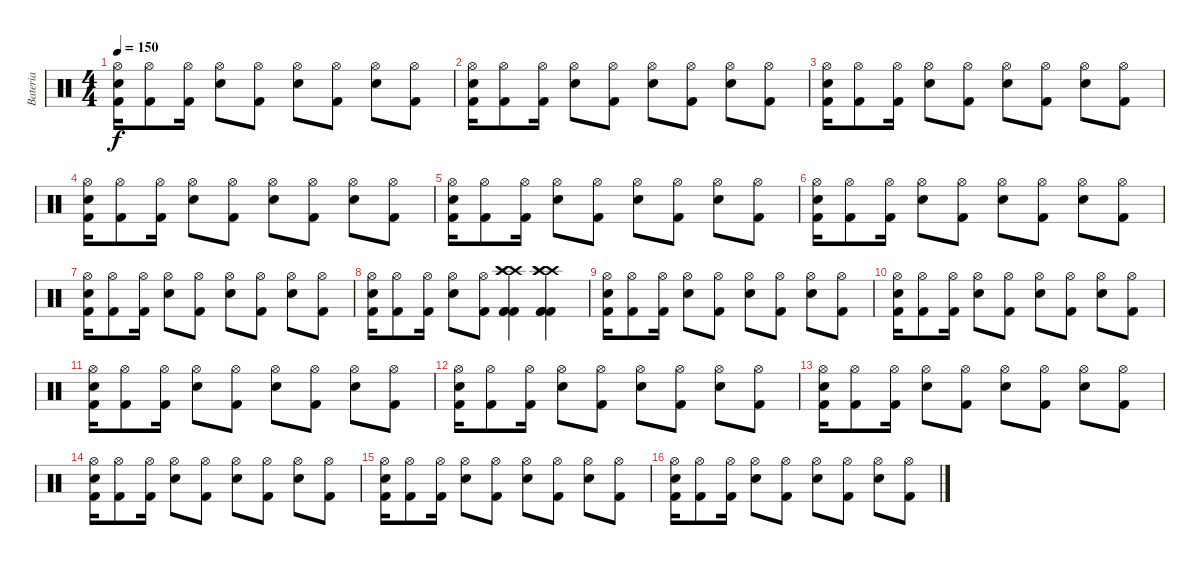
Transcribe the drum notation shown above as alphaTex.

\track ("Bateria" "Bateria") {instrument percussion}
\staff {score}
\articulation defaults
\ts (4 4)
\tempo 150
\clef neutral
\ks c
("Hi-Hat (open)" "Electric Snare (hit)" "Kick (hit) 2").16{dy f} ("Hi-Hat (open)" "Kick (hit) 2").8 ("Hi-Hat (open)" "Kick (hit) 2").16 ("Hi-Hat (open)" "Electric Snare (hit)").8 ("Hi-Hat (open)" "Kick (hit) 2").8 ("Hi-Hat (open)" "Electric Snare (hit)").8 ("Hi-Hat (open)" "Kick (hit) 2").8 ("Hi-Hat (open)" "Electric Snare (hit)").8 ("Hi-Hat (open)" "Kick (hit) 2").8 |
("Hi-Hat (open)" "Electric Snare (hit)" "Kick (hit) 2").16 ("Hi-Hat (open)" "Kick (hit) 2").8 ("Hi-Hat (open)" "Kick (hit) 2").16 ("Hi-Hat (open)" "Electric Snare (hit)").8 ("Hi-Hat (open)" "Kick (hit) 2").8 ("Hi-Hat (open)" "Electric Snare (hit)").8 ("Hi-Hat (open)" "Kick (hit) 2").8 ("Hi-Hat (open)" "Electric Snare (hit)").8 ("Hi-Hat (open)" "Kick (hit) 2").8 |
("Hi-Hat (open)" "Electric Snare (hit)" "Kick (hit) 2").16 ("Hi-Hat (open)" "Kick (hit) 2").8 ("Hi-Hat (open)" "Kick (hit) 2").16 ("Hi-Hat (open)" "Electric Snare (hit)").8 ("Hi-Hat (open)" "Kick (hit) 2").8 ("Hi-Hat (open)" "Electric Snare (hit)").8 ("Hi-Hat (open)" "Kick (hit) 2").8 ("Hi-Hat (open)" "Electric Snare (hit)").8 ("Hi-Hat (open)" "Kick (hit) 2").8 |
("Hi-Hat (open)" "Electric Snare (hit)" "Kick (hit) 2").16 ("Hi-Hat (open)" "Kick (hit) 2").8 ("Hi-Hat (open)" "Kick (hit) 2").16 ("Hi-Hat (open)" "Electric Snare (hit)").8 ("Hi-Hat (open)" "Kick (hit) 2").8 ("Hi-Hat (open)" "Electric Snare (hit)").8 ("Hi-Hat (open)" "Kick (hit) 2").8 ("Hi-Hat (open)" "Electric Snare (hit)").8 ("Hi-Hat (open)" "Kick (hit) 2").8 |
("Hi-Hat (open)" "Electric Snare (hit)" "Kick (hit) 2").16 ("Hi-Hat (open)" "Kick (hit) 2").8 ("Hi-Hat (open)" "Kick (hit) 2").16 ("Hi-Hat (open)" "Electric Snare (hit)").8 ("Hi-Hat (open)" "Kick (hit) 2").8 ("Hi-Hat (open)" "Electric Snare (hit)").8 ("Hi-Hat (open)" "Kick (hit) 2").8 ("Hi-Hat (open)" "Electric Snare (hit)").8 ("Hi-Hat (open)" "Kick (hit) 2").8 |
("Hi-Hat (open)" "Electric Snare (hit)" "Kick (hit) 2").16 ("Hi-Hat (open)" "Kick (hit) 2").8 ("Hi-Hat (open)" "Kick (hit) 2").16 ("Hi-Hat (open)" "Electric Snare (hit)").8 ("Hi-Hat (open)" "Kick (hit) 2").8 ("Hi-Hat (open)" "Electric Snare (hit)").8 ("Hi-Hat (open)" "Kick (hit) 2").8 ("Hi-Hat (open)" "Electric Snare (hit)").8 ("Hi-Hat (open)" "Kick (hit) 2").8 |
("Hi-Hat (open)" "Electric Snare (hit)" "Kick (hit) 2").16 ("Hi-Hat (open)" "Kick (hit) 2").8 ("Hi-Hat (open)" "Kick (hit) 2").16 ("Hi-Hat (open)" "Electric Snare (hit)").8 ("Hi-Hat (open)" "Kick (hit) 2").8 ("Hi-Hat (open)" "Electric Snare (hit)").8 ("Hi-Hat (open)" "Kick (hit) 2").8 ("Hi-Hat (open)" "Electric Snare (hit)").8 ("Hi-Hat (open)" "Kick (hit) 2").8 |
("Hi-Hat (open)" "Electric Snare (hit)" "Kick (hit) 2").16 ("Hi-Hat (open)" "Kick (hit) 2").8 ("Hi-Hat (open)" "Kick (hit) 2").16 ("Hi-Hat (open)" "Electric Snare (hit)").8 ("Hi-Hat (open)" "Kick (hit) 2").8 ("Crash high (hit)" "Crash high (hit)" "Crash high (hit)" "Kick (hit) 2" "Kick (hit) 2" "Kick (hit) 2").4 ("Crash high (hit)" "Crash high (hit)" "Crash high (hit)" "Kick (hit) 2" "Kick (hit) 2" "Kick (hit) 2").4 |
("Hi-Hat (open)" "Electric Snare (hit)" "Kick (hit) 2").16 ("Hi-Hat (open)" "Kick (hit) 2").8 ("Hi-Hat (open)" "Kick (hit) 2").16 ("Hi-Hat (open)" "Electric Snare (hit)").8 ("Hi-Hat (open)" "Kick (hit) 2").8 ("Hi-Hat (open)" "Electric Snare (hit)").8 ("Hi-Hat (open)" "Kick (hit) 2").8 ("Hi-Hat (open)" "Electric Snare (hit)").8 ("Hi-Hat (open)" "Kick (hit) 2").8 |
("Hi-Hat (open)" "Electric Snare (hit)" "Kick (hit) 2").16 ("Hi-Hat (open)" "Kick (hit) 2").8 ("Hi-Hat (open)" "Kick (hit) 2").16 ("Hi-Hat (open)" "Electric Snare (hit)").8 ("Hi-Hat (open)" "Kick (hit) 2").8 ("Hi-Hat (open)" "Electric Snare (hit)").8 ("Hi-Hat (open)" "Kick (hit) 2").8 ("Hi-Hat (open)" "Electric Snare (hit)").8 ("Hi-Hat (open)" "Kick (hit) 2").8 |
("Hi-Hat (open)" "Electric Snare (hit)" "Kick (hit) 2").16 ("Hi-Hat (open)" "Kick (hit) 2").8 ("Hi-Hat (open)" "Kick (hit) 2").16 ("Hi-Hat (open)" "Electric Snare (hit)").8 ("Hi-Hat (open)" "Kick (hit) 2").8 ("Hi-Hat (open)" "Electric Snare (hit)").8 ("Hi-Hat (open)" "Kick (hit) 2").8 ("Hi-Hat (open)" "Electric Snare (hit)").8 ("Hi-Hat (open)" "Kick (hit) 2").8 |
("Hi-Hat (open)" "Electric Snare (hit)" "Kick (hit) 2").16 ("Hi-Hat (open)" "Kick (hit) 2").8 ("Hi-Hat (open)" "Kick (hit) 2").16 ("Hi-Hat (open)" "Electric Snare (hit)").8 ("Hi-Hat (open)" "Kick (hit) 2").8 ("Hi-Hat (open)" "Electric Snare (hit)").8 ("Hi-Hat (open)" "Kick (hit) 2").8 ("Hi-Hat (open)" "Electric Snare (hit)").8 ("Hi-Hat (open)" "Kick (hit) 2").8 |
("Hi-Hat (open)" "Electric Snare (hit)" "Kick (hit) 2").16 ("Hi-Hat (open)" "Kick (hit) 2").8 ("Hi-Hat (open)" "Kick (hit) 2").16 ("Hi-Hat (open)" "Electric Snare (hit)").8 ("Hi-Hat (open)" "Kick (hit) 2").8 ("Hi-Hat (open)" "Electric Snare (hit)").8 ("Hi-Hat (open)" "Kick (hit) 2").8 ("Hi-Hat (open)" "Electric Snare (hit)").8 ("Hi-Hat (open)" "Kick (hit) 2").8 |
("Hi-Hat (open)" "Electric Snare (hit)" "Kick (hit) 2").16 ("Hi-Hat (open)" "Kick (hit) 2").8 ("Hi-Hat (open)" "Kick (hit) 2").16 ("Hi-Hat (open)" "Electric Snare (hit)").8 ("Hi-Hat (open)" "Kick (hit) 2").8 ("Hi-Hat (open)" "Electric Snare (hit)").8 ("Hi-Hat (open)" "Kick (hit) 2").8 ("Hi-Hat (open)" "Electric Snare (hit)").8 ("Hi-Hat (open)" "Kick (hit) 2").8 |
("Hi-Hat (open)" "Electric Snare (hit)" "Kick (hit) 2").16 ("Hi-Hat (open)" "Kick (hit) 2").8 ("Hi-Hat (open)" "Kick (hit) 2").16 ("Hi-Hat (open)" "Electric Snare (hit)").8 ("Hi-Hat (open)" "Kick (hit) 2").8 ("Hi-Hat (open)" "Electric Snare (hit)").8 ("Hi-Hat (open)" "Kick (hit) 2").8 ("Hi-Hat (open)" "Electric Snare (hit)").8 ("Hi-Hat (open)" "Kick (hit) 2").8 |
("Hi-Hat (open)" "Electric Snare (hit)" "Kick (hit) 2").16 ("Hi-Hat (open)" "Kick (hit) 2").8 ("Hi-Hat (open)" "Kick (hit) 2").16 ("Hi-Hat (open)" "Electric Snare (hit)").8 ("Hi-Hat (open)" "Kick (hit) 2").8 ("Hi-Hat (open)" "Electric Snare (hit)").8 ("Hi-Hat (open)" "Kick (hit) 2").8 ("Hi-Hat (open)" "Electric Snare (hit)").8 ("Hi-Hat (open)" "Kick (hit) 2").8
